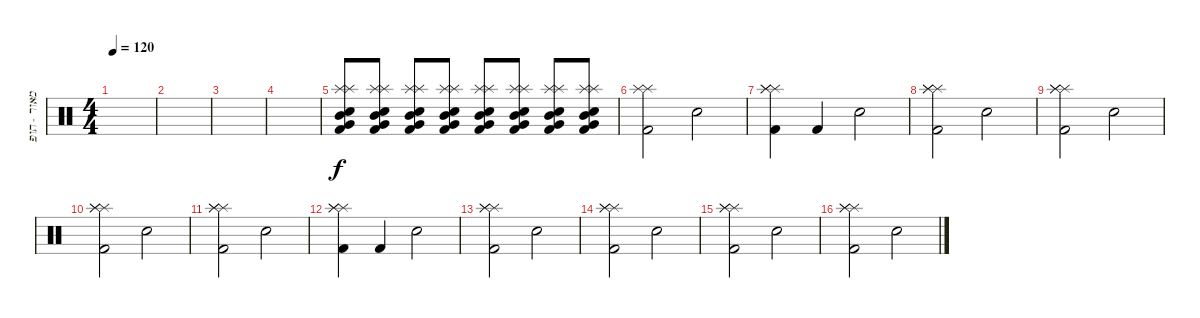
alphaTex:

\track ("מאור - תופים" "מאור - תופ") {instrument percussion}
\staff {score}
\articulation defaults
\ts (4 4)
\tempo 120
\clef neutral
\ks c
|
|
|
|
("Kick (hit) 2" "Electric Snare (hit)" "Very Low Tom (hit)" "Splash (hit)" "Splash (hit)" "Mid Tom (hit)").8 ("Kick (hit) 2" "Electric Snare (hit)" "Very Low Tom (hit)" "Splash (hit)" "Splash (hit)" "Mid Tom (hit)").8 ("Kick (hit) 2" "Electric Snare (hit)" "Very Low Tom (hit)" "Splash (hit)" "Splash (hit)" "Mid Tom (hit)").8 ("Kick (hit) 2" "Electric Snare (hit)" "Very Low Tom (hit)" "Splash (hit)" "Splash (hit)" "Mid Tom (hit)").8 ("Kick (hit) 2" "Electric Snare (hit)" "Very Low Tom (hit)" "Splash (hit)" "Splash (hit)" "Mid Tom (hit)").8 ("Kick (hit) 2" "Electric Snare (hit)" "Very Low Tom (hit)" "Splash (hit)" "Splash (hit)" "Mid Tom (hit)").8 ("Kick (hit) 2" "Electric Snare (hit)" "Very Low Tom (hit)" "Splash (hit)" "Splash (hit)" "Mid Tom (hit)").8 ("Kick (hit) 2" "Electric Snare (hit)" "Very Low Tom (hit)" "Splash (hit)" "Splash (hit)" "Mid Tom (hit)").8 |
("Kick (hit) 2" "Splash (hit)" "Splash (hit)").2 "Electric Snare (hit)".2 |
("Kick (hit) 2" "Splash (hit)" "Splash (hit)" "Splash (hit)").4 "Kick (hit) 2".4 "Electric Snare (hit)".2 |
("Kick (hit) 2" "Splash (hit)" "Splash (hit)" "Splash (hit)").2 "Electric Snare (hit)".2 |
("Kick (hit) 2" "Splash (hit)" "Splash (hit)" "Splash (hit)").2 "Electric Snare (hit)".2 |
("Kick (hit) 2" "Splash (hit)" "Splash (hit)" "Splash (hit)").2 "Electric Snare (hit)".2 |
("Kick (hit) 2" "Splash (hit)" "Splash (hit)" "Splash (hit)").2 "Electric Snare (hit)".2 |
("Kick (hit) 2" "Splash (hit)" "Splash (hit)" "Splash (hit)").4 "Kick (hit) 2".4 "Electric Snare (hit)".2 |
("Kick (hit) 2" "Splash (hit)" "Splash (hit)" "Splash (hit)").2 "Electric Snare (hit)".2 |
("Kick (hit) 2" "Splash (hit)" "Splash (hit)" "Splash (hit)").2 "Electric Snare (hit)".2 |
("Kick (hit) 2" "Splash (hit)" "Splash (hit)" "Splash (hit)").2 "Electric Snare (hit)".2 |
("Kick (hit) 2" "Splash (hit)" "Splash (hit)" "Splash (hit)").2 "Electric Snare (hit)".2
